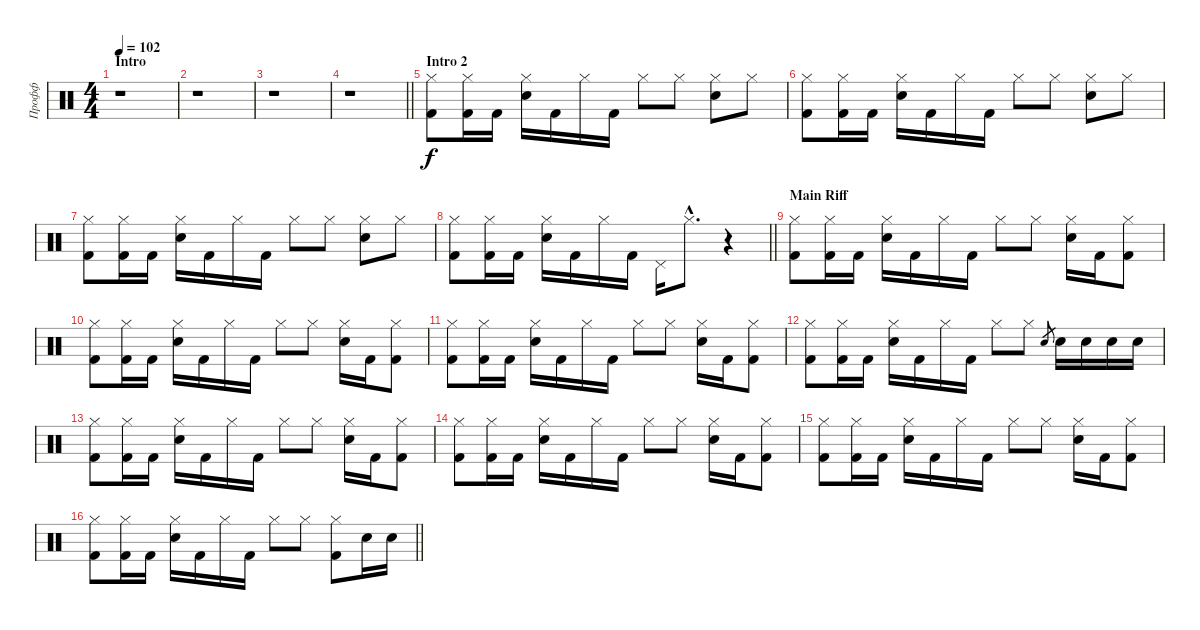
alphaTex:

\track ("Профф" "Профф") {instrument percussion}
\staff {score}
\articulation defaults
\ts (4 4)
\section ("" "Intro")
\tempo 102
\clef neutral
\ks c
r.1{dy f} |
r.1 |
r.1 |
\barLineRight lightlight
r.1 |
\section ("" "Intro 2")
("Hi-Hat (closed)" "Kick (hit) 2").8 ("Hi-Hat (closed)" "Kick (hit) 2").16 "Kick (hit) 2".16 ("Hi-Hat (closed)" "Snare (hit) 2").16 "Kick (hit) 2".16 "Hi-Hat (closed)".16 "Kick (hit) 2".16 "Hi-Hat (closed)".8 "Hi-Hat (closed)".8 ("Hi-Hat (closed)" "Snare (hit) 2").8 "Hi-Hat (closed)".8 |
("Hi-Hat (closed)" "Kick (hit) 2").8 ("Hi-Hat (closed)" "Kick (hit) 2").16 "Kick (hit) 2".16 ("Hi-Hat (closed)" "Snare (hit) 2").16 "Kick (hit) 2".16 "Hi-Hat (closed)".16 "Kick (hit) 2".16 "Hi-Hat (closed)".8 "Hi-Hat (closed)".8 ("Hi-Hat (closed)" "Snare (hit) 2").8 "Hi-Hat (closed)".8 |
("Hi-Hat (closed)" "Kick (hit) 2").8 ("Hi-Hat (closed)" "Kick (hit) 2").16 "Kick (hit) 2".16 ("Hi-Hat (closed)" "Snare (hit) 2").16 "Kick (hit) 2".16 "Hi-Hat (closed)".16 "Kick (hit) 2".16 "Hi-Hat (closed)".8 "Hi-Hat (closed)".8 ("Hi-Hat (closed)" "Snare (hit) 2").8 "Hi-Hat (closed)".8 |
\barLineRight lightlight
("Hi-Hat (closed)" "Kick (hit) 2").8 ("Hi-Hat (closed)" "Kick (hit) 2").16 "Kick (hit) 2".16 ("Hi-Hat (closed)" "Snare (hit) 2").16 "Kick (hit) 2".16 "Hi-Hat (closed)".16 "Kick (hit) 2".16 "Pedal Hi-Hat (hit)".16 "Hi-Hat (closed)"{hac}.8{d} r.4 |
\section ("" "Main Riff")
("Hi-Hat (closed)" "Kick (hit) 2").8 ("Hi-Hat (closed)" "Kick (hit) 2").16 "Kick (hit) 2".16 ("Hi-Hat (closed)" "Snare (hit) 2").16 "Kick (hit) 2".16 "Hi-Hat (closed)".16 "Kick (hit) 2".16 "Hi-Hat (closed)".8 "Hi-Hat (closed)".8 ("Hi-Hat (closed)" "Snare (hit) 2").16 "Kick (hit) 2".16 ("Hi-Hat (closed)" "Kick (hit) 2").8 |
("Hi-Hat (closed)" "Kick (hit) 2").8 ("Hi-Hat (closed)" "Kick (hit) 2").16 "Kick (hit) 2".16 ("Hi-Hat (closed)" "Snare (hit) 2").16 "Kick (hit) 2".16 "Hi-Hat (closed)".16 "Kick (hit) 2".16 "Hi-Hat (closed)".8 "Hi-Hat (closed)".8 ("Hi-Hat (closed)" "Snare (hit) 2").16 "Kick (hit) 2".16 ("Hi-Hat (closed)" "Kick (hit) 2").8 |
("Hi-Hat (closed)" "Kick (hit) 2").8 ("Hi-Hat (closed)" "Kick (hit) 2").16 "Kick (hit) 2".16 ("Hi-Hat (closed)" "Snare (hit) 2").16 "Kick (hit) 2".16 "Hi-Hat (closed)".16 "Kick (hit) 2".16 "Hi-Hat (closed)".8 "Hi-Hat (closed)".8 ("Hi-Hat (closed)" "Snare (hit) 2").16 "Kick (hit) 2".16 ("Hi-Hat (closed)" "Kick (hit) 2").8 |
("Hi-Hat (closed)" "Kick (hit) 2").8 ("Hi-Hat (closed)" "Kick (hit) 2").16 "Kick (hit) 2".16 ("Hi-Hat (closed)" "Snare (hit) 2").16 "Kick (hit) 2".16 "Hi-Hat (closed)".16 "Kick (hit) 2".16 "Hi-Hat (closed)".8 "Hi-Hat (closed)".8 "Snare (hit) 2".8{gr} "Snare (hit) 2".16 "Snare (hit) 2".16 "Snare (hit) 2".16 "Snare (hit) 2".16 |
("Hi-Hat (closed)" "Kick (hit) 2").8 ("Hi-Hat (closed)" "Kick (hit) 2").16 "Kick (hit) 2".16 ("Hi-Hat (closed)" "Snare (hit) 2").16 "Kick (hit) 2".16 "Hi-Hat (closed)".16 "Kick (hit) 2".16 "Hi-Hat (closed)".8 "Hi-Hat (closed)".8 ("Hi-Hat (closed)" "Snare (hit) 2").16 "Kick (hit) 2".16 ("Hi-Hat (closed)" "Kick (hit) 2").8 |
("Hi-Hat (closed)" "Kick (hit) 2").8 ("Hi-Hat (closed)" "Kick (hit) 2").16 "Kick (hit) 2".16 ("Hi-Hat (closed)" "Snare (hit) 2").16 "Kick (hit) 2".16 "Hi-Hat (closed)".16 "Kick (hit) 2".16 "Hi-Hat (closed)".8 "Hi-Hat (closed)".8 ("Hi-Hat (closed)" "Snare (hit) 2").16 "Kick (hit) 2".16 ("Hi-Hat (closed)" "Kick (hit) 2").8 |
("Hi-Hat (closed)" "Kick (hit) 2").8 ("Hi-Hat (closed)" "Kick (hit) 2").16 "Kick (hit) 2".16 ("Hi-Hat (closed)" "Snare (hit) 2").16 "Kick (hit) 2".16 "Hi-Hat (closed)".16 "Kick (hit) 2".16 "Hi-Hat (closed)".8 "Hi-Hat (closed)".8 ("Hi-Hat (closed)" "Snare (hit) 2").16 "Kick (hit) 2".16 ("Hi-Hat (closed)" "Kick (hit) 2").8 |
\barLineRight lightlight
("Hi-Hat (closed)" "Kick (hit) 2").8 ("Hi-Hat (closed)" "Kick (hit) 2").16 "Kick (hit) 2".16 ("Hi-Hat (closed)" "Snare (hit) 2").16 "Kick (hit) 2".16 "Hi-Hat (closed)".16 "Kick (hit) 2".16 "Hi-Hat (closed)".8 "Hi-Hat (closed)".8 ("Hi-Hat (closed)" "Kick (hit) 2").8 "Snare (hit) 2".16 "Snare (hit) 2".16
